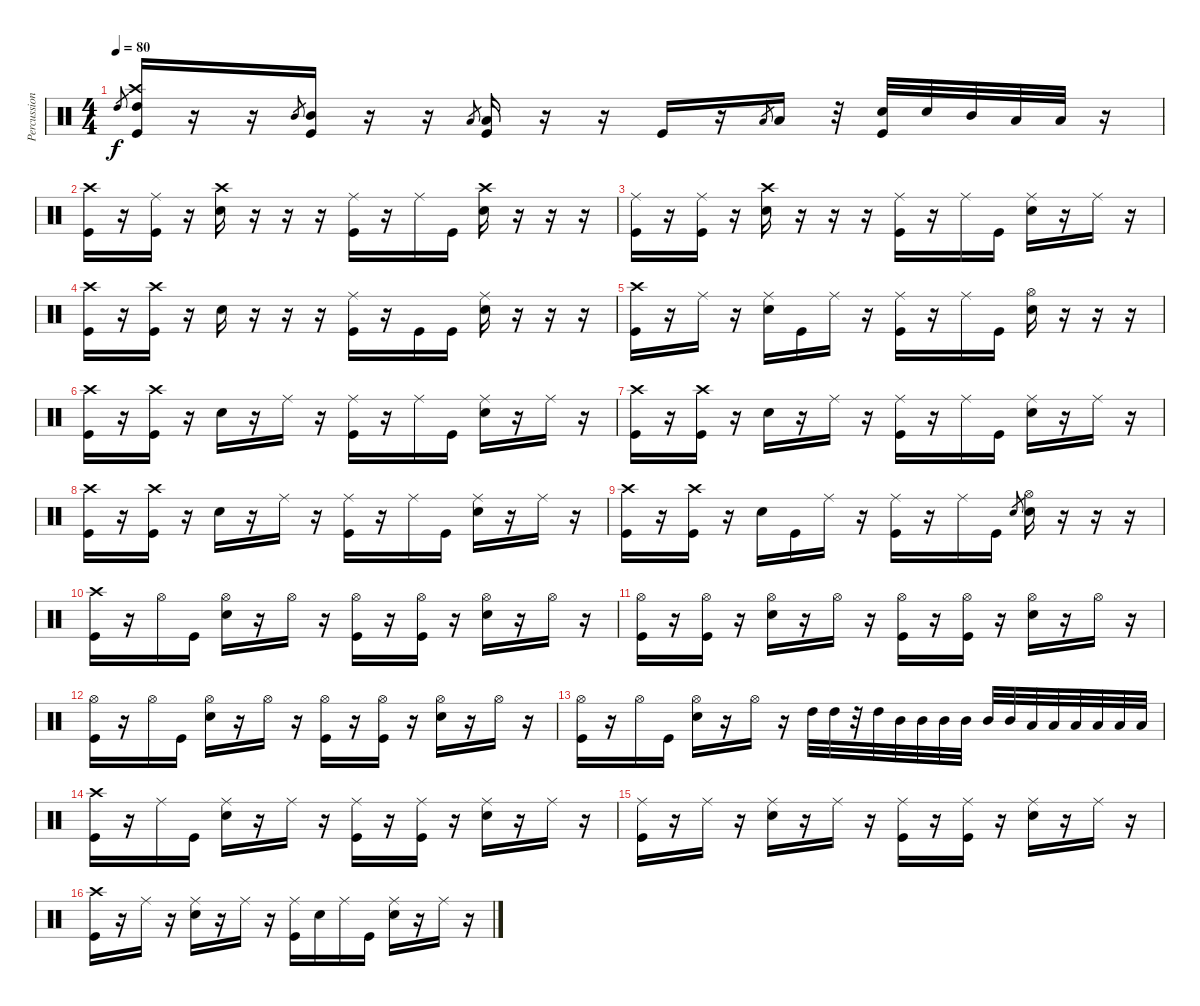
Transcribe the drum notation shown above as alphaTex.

\track ("Percussion" "Percussion") {instrument percussion}
\staff {score}
\articulation defaults
\ts (4 4)
\tempo 80
\clef neutral
\ks c "High Tom (hit)".8{gr dy f}
("High Tom (hit)" "Crash high (hit)" "Kick (hit)").16 r.16 r.16 "Mid Tom (hit)".8{gr} ("Mid Tom (hit)" "Kick (hit)").16 r.16 r.16 "Low Tom (hit)".8{gr} ("Low Tom (hit)" "Kick (hit)").16 r.16 r.16 "Kick (hit)".16 r.16 "Low Tom (hit)".8{gr} "Low Tom (hit)".16 r.32 ("Snare (hit) 2" "Kick (hit)").32 "Snare (hit) 2".32 "Mid Tom (hit)".32 "Low Tom (hit)".32 "Low Tom (hit)".32 r.16 |
("Crash high (hit)" "Kick (hit)").16 r.16 ("Ride (middle)" "Kick (hit)").16 r.16 ("Snare (hit) 2" "Crash high (hit)").16 r.16 r.16 r.16 ("Ride (middle)" "Kick (hit)").16 r.16 "Ride (middle)".16 "Kick (hit)".16 ("Snare (hit) 2" "Crash high (hit)").16 r.16 r.16 r.16 |
("Ride (middle)" "Kick (hit)").16 r.16 ("Ride (middle)" "Kick (hit)").16 r.16 ("Snare (hit) 2" "Crash high (hit)").16 r.16 r.16 r.16 ("Ride (middle)" "Kick (hit)").16 r.16 "Ride (middle)".16 "Kick (hit)".16 ("Snare (hit) 2" "Ride (middle)").16 r.16 "Ride (middle)".16 r.16 |
("Crash high (hit)" "Kick (hit)").16 r.16 ("Crash high (hit)" "Kick (hit)").16 r.16 "Snare (hit) 2".16 r.16 r.16 r.16 ("Ride (middle)" "Kick (hit)").16 r.16 "Kick (hit)".16 "Kick (hit)".16 ("Snare (hit) 2" "Ride (middle)").16 r.16 r.16 r.16 |
("Crash high (hit)" "Kick (hit)").16 r.16 "Ride (middle)".16 r.16 ("Snare (hit) 2" "Ride (middle)").16 "Kick (hit)".16 "Ride (middle)".16 r.16 ("Ride (middle)" "Kick (hit)").16 r.16 "Ride (middle)".16 "Kick (hit)".16 ("Snare (hit) 2" "Hi-Hat (open)").16 r.16 r.16 r.16 |
("Crash high (hit)" "Kick (hit)").16 r.16 ("Crash high (hit)" "Kick (hit)").16 r.16 "Snare (hit) 2".16 r.16 "Ride (middle)".16 r.16 ("Ride (middle)" "Kick (hit)").16 r.16 "Ride (middle)".16 "Kick (hit)".16 ("Snare (hit) 2" "Ride (middle)").16 r.16 "Ride (middle)".16 r.16 |
("Crash high (hit)" "Kick (hit)").16 r.16 ("Crash high (hit)" "Kick (hit)").16 r.16 "Snare (hit) 2".16 r.16 "Ride (middle)".16 r.16 ("Ride (middle)" "Kick (hit)").16 r.16 "Ride (middle)".16 "Kick (hit)".16 ("Snare (hit) 2" "Ride (middle)").16 r.16 "Ride (middle)".16 r.16 |
("Crash high (hit)" "Kick (hit)").16 r.16 ("Crash high (hit)" "Kick (hit)").16 r.16 "Snare (hit) 2".16 r.16 "Ride (middle)".16 r.16 ("Ride (middle)" "Kick (hit)").16 r.16 "Ride (middle)".16 "Kick (hit)".16 ("Snare (hit) 2" "Ride (middle)").16 r.16 "Ride (middle)".16 r.16 |
("Crash high (hit)" "Kick (hit)").16 r.16 ("Crash high (hit)" "Kick (hit)").16 r.16 "Snare (hit) 2".16 "Kick (hit)".16 "Ride (middle)".16 r.16 ("Ride (middle)" "Kick (hit)").16 r.16 "Ride (middle)".16 "Kick (hit)".16 "Snare (hit) 2".8{gr} ("Snare (hit) 2" "Hi-Hat (open)").16 r.16 r.16 r.16 |
("Crash high (hit)" "Kick (hit)").16 r.16 "Hi-Hat (open)".16 "Kick (hit)".16 ("Snare (hit) 2" "Hi-Hat (open)").16 r.16 "Hi-Hat (open)".16 r.16 ("Hi-Hat (open)" "Kick (hit)").16 r.16 ("Hi-Hat (open)" "Kick (hit)").16 r.16 ("Snare (hit) 2" "Hi-Hat (open)").16 r.16 "Hi-Hat (open)".16 r.16 |
("Hi-Hat (open)" "Kick (hit)").16 r.16 ("Hi-Hat (open)" "Kick (hit)").16 r.16 ("Snare (hit) 2" "Hi-Hat (open)").16 r.16 "Hi-Hat (open)".16 r.16 ("Hi-Hat (open)" "Kick (hit)").16 r.16 ("Hi-Hat (open)" "Kick (hit)").16 r.16 ("Snare (hit) 2" "Hi-Hat (open)").16 r.16 "Hi-Hat (open)".16 r.16 |
("Hi-Hat (open)" "Kick (hit)").16 r.16 "Hi-Hat (open)".16 "Kick (hit)".16 ("Snare (hit) 2" "Hi-Hat (open)").16 r.16 "Hi-Hat (open)".16 r.16 ("Hi-Hat (open)" "Kick (hit)").16 r.16 ("Hi-Hat (open)" "Kick (hit)").16 r.16 ("Snare (hit) 2" "Hi-Hat (open)").16 r.16 "Hi-Hat (open)".16 r.16 |
("Hi-Hat (open)" "Kick (hit)").16 r.16 "Hi-Hat (open)".16 "Kick (hit)".16 ("Snare (hit) 2" "Hi-Hat (open)").16 r.16 "Hi-Hat (open)".16 r.16 "High Tom (hit)".32 "High Tom (hit)".32 r.32 "High Tom (hit)".32 "Mid Tom (hit)".32 "Mid Tom (hit)".32 "Mid Tom (hit)".32 "Mid Tom (hit)".32 "Mid Tom (hit)".32 "Mid Tom (hit)".32 "Low Tom (hit)".32 "Low Tom (hit)".32 "Low Tom (hit)".32 "Low Tom (hit)".32 "Low Tom (hit)".32 "Low Tom (hit)".32 |
("Crash high (hit)" "Kick (hit)").16 r.16 "Ride (middle)".16 "Kick (hit)".16 ("Snare (hit) 2" "Ride (middle)").16 r.16 "Ride (middle)".16 r.16 ("Ride (middle)" "Kick (hit)").16 r.16 ("Ride (middle)" "Kick (hit)").16 r.16 ("Snare (hit) 2" "Ride (middle)").16 r.16 "Ride (middle)".16 r.16 |
("Ride (middle)" "Kick (hit)").16 r.16 "Ride (middle)".16 r.16 ("Snare (hit) 2" "Ride (middle)").16 r.16 "Ride (middle)".16 r.16 ("Ride (middle)" "Kick (hit)").16 r.16 ("Ride (middle)" "Kick (hit)").16 r.16 ("Snare (hit) 2" "Ride (middle)").16 r.16 "Ride (middle)".16 r.16 |
("Crash high (hit)" "Kick (hit)").16 r.16 "Ride (middle)".16 r.16 ("Snare (hit) 2" "Ride (middle)").16 r.16 "Ride (middle)".16 r.16 ("Ride (middle)" "Kick (hit)").16 "Snare (hit) 2".16 "Ride (middle)".16 "Kick (hit)".16 ("Snare (hit) 2" "Ride (middle)").16 r.16 "Ride (middle)".16 r.16
